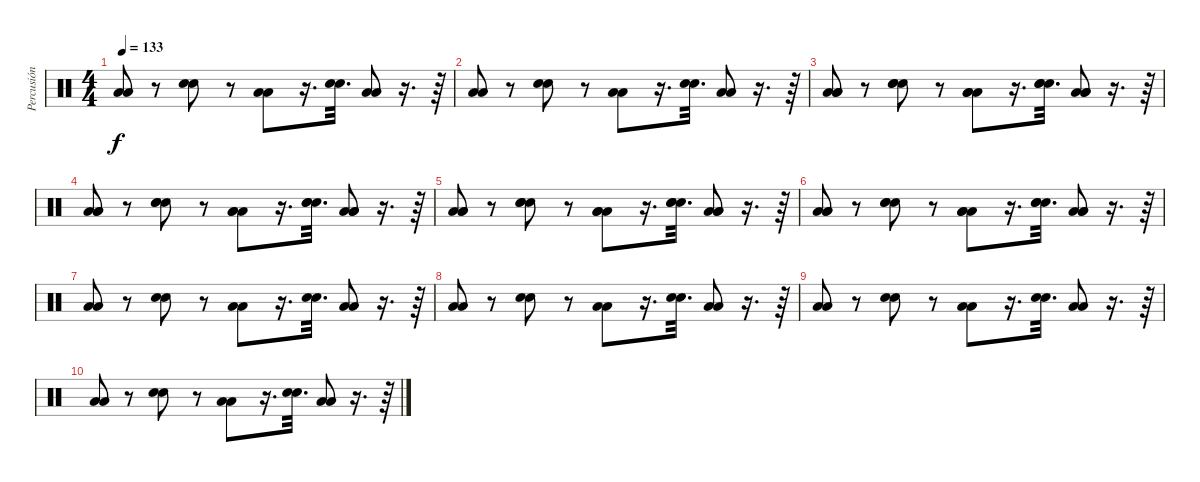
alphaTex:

\track ("Percusión" "Percusión") {instrument percussion}
\staff {score}
\articulation defaults
\ts (4 4)
\tempo 133
\clef neutral
\ks c
("Low Tom (hit)" "Low Tom (hit)").8{dy f} r.8 ("Snare (hit) 2" "Snare (hit) 2").8 r.8 ("Low Tom (hit)" "Low Tom (hit)").8 r.16{d} ("Snare (hit) 2" "Snare (hit) 2").32{d} ("Low Tom (hit)" "Low Tom (hit)").8 r.16{d} r.64 |
("Low Tom (hit)" "Low Tom (hit)").8 r.8 ("Snare (hit) 2" "Snare (hit) 2").8 r.8 ("Low Tom (hit)" "Low Tom (hit)").8 r.16{d} ("Snare (hit) 2" "Snare (hit) 2").32{d} ("Low Tom (hit)" "Low Tom (hit)").8 r.16{d} r.64 |
("Low Tom (hit)" "Low Tom (hit)" "Low Tom (hit)").8 r.8 ("Snare (hit) 2" "Snare (hit) 2" "Snare (hit) 2").8 r.8 ("Low Tom (hit)" "Low Tom (hit)" "Low Tom (hit)").8 r.16{d} ("Snare (hit) 2" "Snare (hit) 2" "Snare (hit) 2").32{d} ("Low Tom (hit)" "Low Tom (hit)" "Low Tom (hit)").8 r.16{d} r.64 |
("Low Tom (hit)" "Low Tom (hit)" "Low Tom (hit)").8 r.8 ("Snare (hit) 2" "Snare (hit) 2" "Snare (hit) 2").8 r.8 ("Low Tom (hit)" "Low Tom (hit)" "Low Tom (hit)").8 r.16{d} ("Snare (hit) 2" "Snare (hit) 2" "Snare (hit) 2").32{d} ("Low Tom (hit)" "Low Tom (hit)" "Low Tom (hit)").8 r.16{d} r.64 |
("Low Tom (hit)" "Low Tom (hit)" "Low Tom (hit)").8 r.8 ("Snare (hit) 2" "Snare (hit) 2" "Snare (hit) 2").8 r.8 ("Low Tom (hit)" "Low Tom (hit)" "Low Tom (hit)").8 r.16{d} ("Snare (hit) 2" "Snare (hit) 2" "Snare (hit) 2").32{d} ("Low Tom (hit)" "Low Tom (hit)" "Low Tom (hit)").8 r.16{d} r.64 |
("Low Tom (hit)" "Low Tom (hit)" "Low Tom (hit)").8 r.8 ("Snare (hit) 2" "Snare (hit) 2" "Snare (hit) 2").8 r.8 ("Low Tom (hit)" "Low Tom (hit)" "Low Tom (hit)").8 r.16{d} ("Snare (hit) 2" "Snare (hit) 2" "Snare (hit) 2").32{d} ("Low Tom (hit)" "Low Tom (hit)" "Low Tom (hit)").8 r.16{d} r.64 |
("Low Tom (hit)" "Low Tom (hit)").8 r.8 ("Snare (hit) 2" "Snare (hit) 2").8 r.8 ("Low Tom (hit)" "Low Tom (hit)").8 r.16{d} ("Snare (hit) 2" "Snare (hit) 2").32{d} ("Low Tom (hit)" "Low Tom (hit)").8 r.16{d} r.64 |
("Low Tom (hit)" "Low Tom (hit)").8 r.8 ("Snare (hit) 2" "Snare (hit) 2").8 r.8 ("Low Tom (hit)" "Low Tom (hit)").8 r.16{d} ("Snare (hit) 2" "Snare (hit) 2").32{d} ("Low Tom (hit)" "Low Tom (hit)").8 r.16{d} r.64 |
("Low Tom (hit)" "Low Tom (hit)").8 r.8 ("Snare (hit) 2" "Snare (hit) 2").8 r.8 ("Low Tom (hit)" "Low Tom (hit)").8 r.16{d} ("Snare (hit) 2" "Snare (hit) 2").32{d} ("Low Tom (hit)" "Low Tom (hit)").8 r.16{d} r.64 |
("Low Tom (hit)" "Low Tom (hit)").8 r.8 ("Snare (hit) 2" "Snare (hit) 2").8 r.8 ("Low Tom (hit)" "Low Tom (hit)").8 r.16{d} ("Snare (hit) 2" "Snare (hit) 2").32{d} ("Low Tom (hit)" "Low Tom (hit)").8 r.16{d} r.64
